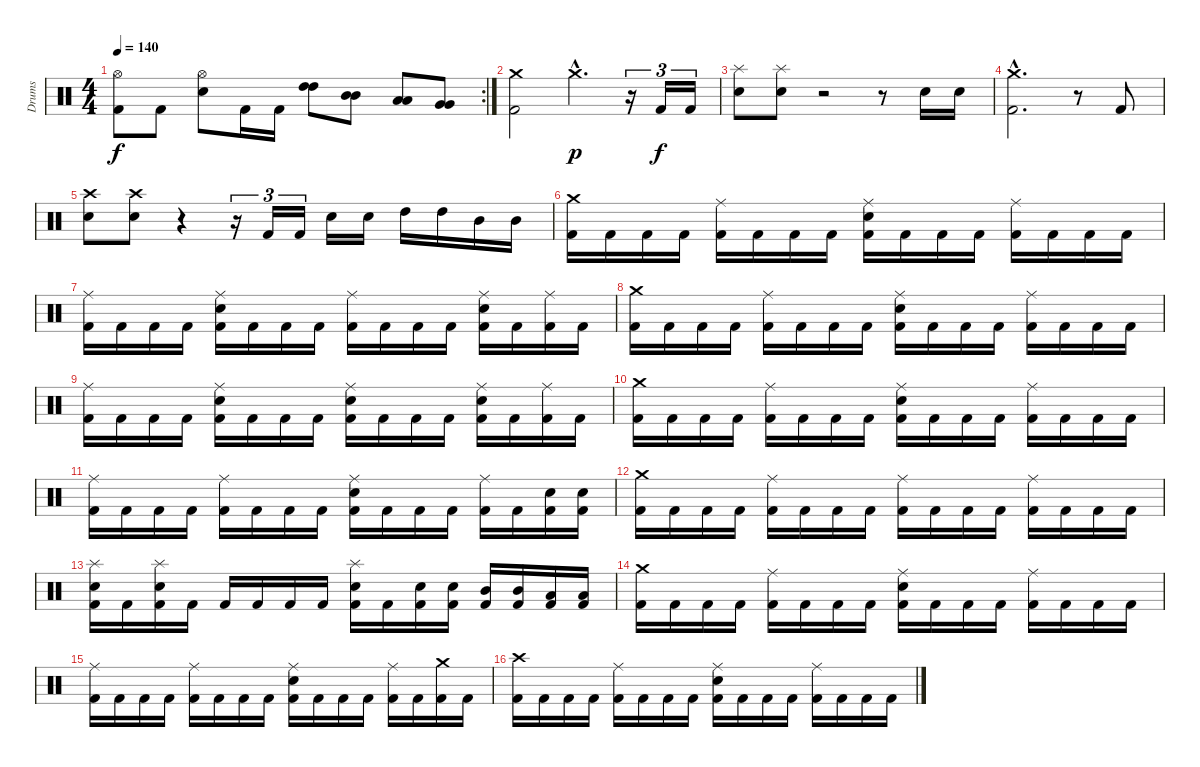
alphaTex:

\track ("Drums" "Drums") {instrument percussion}
\staff {score}
\articulation defaults
\rc 2
\ts (4 4)
\tempo 140
\clef neutral
\ks c
("Hi-Hat (open)" "Kick (hit) 2").8{dy f} "Kick (hit) 2".8 ("Hi-Hat (open)" "Electric Snare (hit)").8 "Kick (hit) 2".16 "Kick (hit) 2".16 ("High Tom (hit)" "High Tom (hit)").8{bd 240} ("Mid Tom (hit)" "Mid Tom (hit)").8{bd 240} ("Low Tom (hit)" "Low Tom (hit)").8{bd 240} ("Very Low Tom (hit)" "Very Low Tom (hit)").8{bd 240} |
("Crash medium (hit)" "Kick (hit) 2").2 "Crash medium (hit)"{hac}.4{d dy p} r.16{tu (3 2)} "Kick (hit) 2".16{tu (3 2) dy f} "Kick (hit) 2".16{tu (3 2)} |
("Splash (hit)" "Electric Snare (hit)").8 ("Splash (hit)" "Electric Snare (hit)").8 r.2 r.8 "Electric Snare (hit)".16 "Electric Snare (hit)".16 |
("Crash medium (hit)"{hac} "Kick (hit) 2"{hac}).2{d} r.8 "Kick (hit) 2".8 |
("Crash high (hit)" "Electric Snare (hit)").8 ("Crash high (hit)" "Electric Snare (hit)").8 r.4 r.16{tu (3 2)} "Kick (hit) 2".16{tu (3 2)} "Kick (hit) 2".16{tu (3 2)} "Electric Snare (hit)".16 "Electric Snare (hit)".16 "High Tom (hit)".16 "High Tom (hit)".16 "Mid Tom (hit)".16 "Mid Tom (hit)".16 |
("Crash medium (hit)" "Kick (hit) 2").16 "Kick (hit) 2".16 "Kick (hit) 2".16 "Kick (hit) 2".16 ("Ride (middle)" "Kick (hit) 2").16 "Kick (hit) 2".16 "Kick (hit) 2".16 "Kick (hit) 2".16 ("Ride (middle)" "Electric Snare (hit)" "Kick (hit) 2").16 "Kick (hit) 2".16 "Kick (hit) 2".16 "Kick (hit) 2".16 ("Ride (middle)" "Kick (hit) 2").16 "Kick (hit) 2".16 "Kick (hit) 2".16 "Kick (hit) 2".16 |
("Ride (middle)" "Kick (hit) 2").16 "Kick (hit) 2".16 "Kick (hit) 2".16 "Kick (hit) 2".16 ("Ride (middle)" "Electric Snare (hit)" "Kick (hit) 2").16 "Kick (hit) 2".16 "Kick (hit) 2".16 "Kick (hit) 2".16 ("Ride (middle)" "Kick (hit) 2").16 "Kick (hit) 2".16 "Kick (hit) 2".16 "Kick (hit) 2".16 ("Ride (middle)" "Electric Snare (hit)" "Kick (hit) 2").16 "Kick (hit) 2".16 ("Ride (middle)" "Kick (hit) 2").16 "Kick (hit) 2".16 |
("Crash medium (hit)" "Kick (hit) 2").16 "Kick (hit) 2".16 "Kick (hit) 2".16 "Kick (hit) 2".16 ("Ride (middle)" "Kick (hit) 2").16 "Kick (hit) 2".16 "Kick (hit) 2".16 "Kick (hit) 2".16 ("Ride (middle)" "Electric Snare (hit)" "Kick (hit) 2").16 "Kick (hit) 2".16 "Kick (hit) 2".16 "Kick (hit) 2".16 ("Ride (middle)" "Kick (hit) 2").16 "Kick (hit) 2".16 "Kick (hit) 2".16 "Kick (hit) 2".16 |
("Ride (middle)" "Kick (hit) 2").16 "Kick (hit) 2".16 "Kick (hit) 2".16 "Kick (hit) 2".16 ("Ride (middle)" "Electric Snare (hit)" "Kick (hit) 2").16 "Kick (hit) 2".16 "Kick (hit) 2".16 "Kick (hit) 2".16 ("Ride (middle)" "Electric Snare (hit)" "Kick (hit) 2").16 "Kick (hit) 2".16 "Kick (hit) 2".16 "Kick (hit) 2".16 ("Ride (middle)" "Electric Snare (hit)" "Kick (hit) 2").16 "Kick (hit) 2".16 ("Ride (middle)" "Kick (hit) 2").16 "Kick (hit) 2".16 |
("Crash medium (hit)" "Kick (hit) 2").16 "Kick (hit) 2".16 "Kick (hit) 2".16 "Kick (hit) 2".16 ("Ride (middle)" "Kick (hit) 2").16 "Kick (hit) 2".16 "Kick (hit) 2".16 "Kick (hit) 2".16 ("Ride (middle)" "Electric Snare (hit)" "Kick (hit) 2").16 "Kick (hit) 2".16 "Kick (hit) 2".16 "Kick (hit) 2".16 ("Ride (middle)" "Kick (hit) 2").16 "Kick (hit) 2".16 "Kick (hit) 2".16 "Kick (hit) 2".16 |
("Ride (middle)" "Kick (hit) 2").16 "Kick (hit) 2".16 "Kick (hit) 2".16 "Kick (hit) 2".16 ("Ride (middle)" "Kick (hit) 2").16 "Kick (hit) 2".16 "Kick (hit) 2".16 "Kick (hit) 2".16 ("Ride (middle)" "Electric Snare (hit)" "Kick (hit) 2").16 "Kick (hit) 2".16 "Kick (hit) 2".16 "Kick (hit) 2".16 ("Ride (middle)" "Kick (hit) 2").16 "Kick (hit) 2".16 ("Electric Snare (hit)" "Kick (hit) 2").16 ("Electric Snare (hit)" "Kick (hit) 2").16 |
("Crash medium (hit)" "Kick (hit) 2").16 "Kick (hit) 2".16 "Kick (hit) 2".16 "Kick (hit) 2".16 ("Ride (middle)" "Kick (hit) 2").16 "Kick (hit) 2".16 "Kick (hit) 2".16 "Kick (hit) 2".16 ("Ride (middle)" "Kick (hit) 2").16 "Kick (hit) 2".16 "Kick (hit) 2".16 "Kick (hit) 2".16 ("Ride (middle)" "Kick (hit) 2").16 "Kick (hit) 2".16 "Kick (hit) 2".16 "Kick (hit) 2".16 |
("Splash (hit)" "Electric Snare (hit)" "Kick (hit) 2").16 "Kick (hit) 2".16 ("Splash (hit)" "Electric Snare (hit)" "Kick (hit) 2").16 "Kick (hit) 2".16 "Kick (hit) 2".16 "Kick (hit) 2".16 "Kick (hit) 2".16 "Kick (hit) 2".16 ("Splash (hit)" "Electric Snare (hit)" "Kick (hit) 2").16 "Kick (hit) 2".16 ("Electric Snare (hit)" "Kick (hit) 2").16 ("Electric Snare (hit)" "Kick (hit) 2").16 ("Mid Tom (hit)" "Kick (hit) 2").16 ("Mid Tom (hit)" "Kick (hit) 2").16 ("Low Tom (hit)" "Kick (hit) 2").16 ("Low Tom (hit)" "Kick (hit) 2").16 |
("Crash medium (hit)" "Kick (hit) 2").16 "Kick (hit) 2".16 "Kick (hit) 2".16 "Kick (hit) 2".16 ("Ride (middle)" "Kick (hit) 2").16 "Kick (hit) 2".16 "Kick (hit) 2".16 "Kick (hit) 2".16 ("Ride (middle)" "Electric Snare (hit)" "Kick (hit) 2").16 "Kick (hit) 2".16 "Kick (hit) 2".16 "Kick (hit) 2".16 ("Ride (middle)" "Kick (hit) 2").16 "Kick (hit) 2".16 "Kick (hit) 2".16 "Kick (hit) 2".16 |
("Ride (middle)" "Kick (hit) 2").16 "Kick (hit) 2".16 "Kick (hit) 2".16 "Kick (hit) 2".16 ("Ride (middle)" "Kick (hit) 2").16 "Kick (hit) 2".16 "Kick (hit) 2".16 "Kick (hit) 2".16 ("Ride (middle)" "Electric Snare (hit)" "Kick (hit) 2").16 "Kick (hit) 2".16 "Kick (hit) 2".16 "Kick (hit) 2".16 ("Ride (middle)" "Kick (hit) 2").16 "Kick (hit) 2".16 ("Crash medium (hit)" "Kick (hit) 2").16 "Kick (hit) 2".16 |
("Crash high (hit)" "Kick (hit) 2").16 "Kick (hit) 2".16 "Kick (hit) 2".16 "Kick (hit) 2".16 ("Ride (middle)" "Kick (hit) 2").16 "Kick (hit) 2".16 "Kick (hit) 2".16 "Kick (hit) 2".16 ("Ride (middle)" "Electric Snare (hit)" "Kick (hit) 2").16 "Kick (hit) 2".16 "Kick (hit) 2".16 "Kick (hit) 2".16 ("Ride (middle)" "Kick (hit) 2").16 "Kick (hit) 2".16 "Kick (hit) 2".16 "Kick (hit) 2".16
